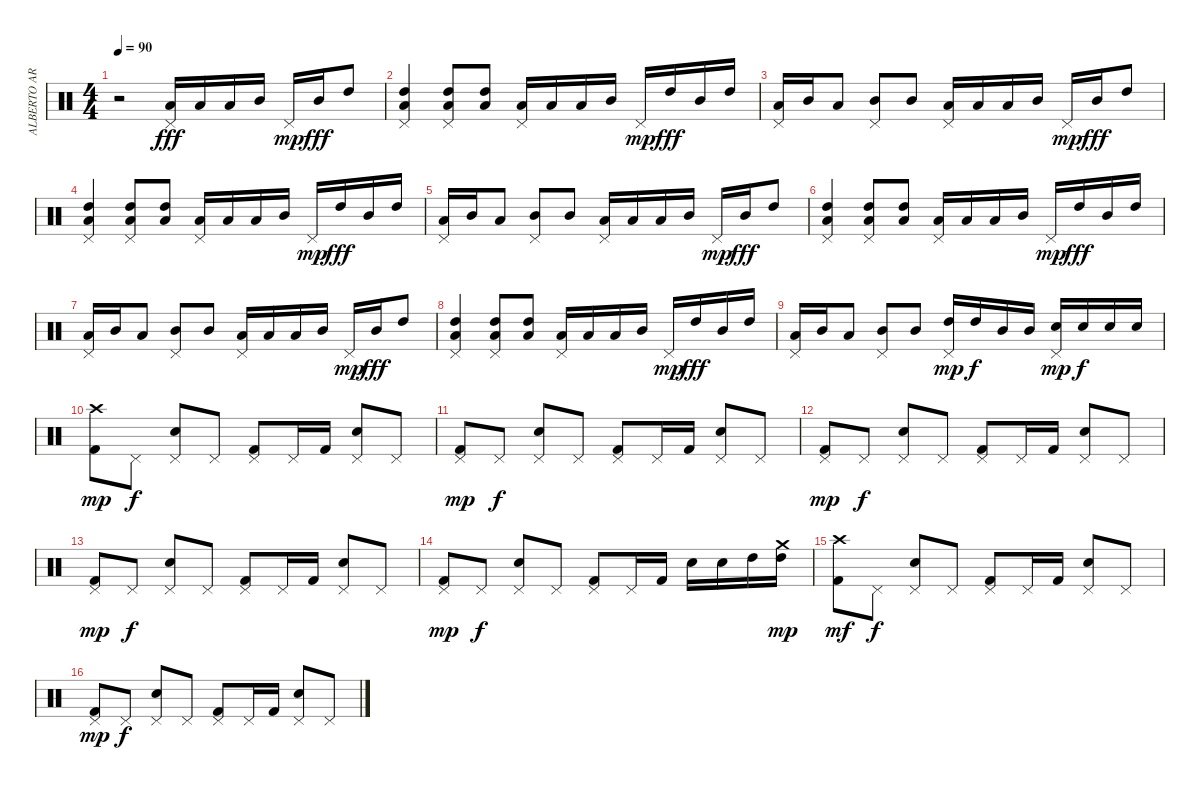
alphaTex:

\track ("ALBERTO ARDINES" "ALBERTO AR") {instrument percussion}
\staff {score}
\articulation defaults
\ts (4 4)
\tempo 90
\clef neutral
\ks c
r.2{dy fff} ("Pedal Hi-Hat (hit)" "Low Tom (hit)").16 "Low Tom (hit)".16 "Low Tom (hit)".16 "Mid Tom (hit)".16 "Pedal Hi-Hat (hit)".16{dy mp} "Mid Tom (hit)".16{dy fff} "High Tom (hit)".8 |
("Pedal Hi-Hat (hit)" "Low Floor Tom (hit)" "High Tom (hit)").4 ("Pedal Hi-Hat (hit)" "Low Floor Tom (hit)" "High Tom (hit)").8 ("Low Floor Tom (hit)" "High Tom (hit)").8 ("Pedal Hi-Hat (hit)" "Low Tom (hit)").16 "Low Tom (hit)".16 "Low Tom (hit)".16 "Mid Tom (hit)".16 "Pedal Hi-Hat (hit)".16{dy mp} "High Tom (hit)".16{dy fff} "Mid Tom (hit)".16 "High Tom (hit)".16 |
("Pedal Hi-Hat (hit)" "Low Tom (hit)").16 "Mid Tom (hit)".16 "Low Tom (hit)".8 ("Pedal Hi-Hat (hit)" "Mid Tom (hit)").8 "Mid Tom (hit)".8 ("Pedal Hi-Hat (hit)" "Low Tom (hit)").16 "Low Tom (hit)".16 "Low Tom (hit)".16 "Mid Tom (hit)".16 "Pedal Hi-Hat (hit)".16{dy mp} "Mid Tom (hit)".16{dy fff} "High Tom (hit)".8 |
("Pedal Hi-Hat (hit)" "Low Floor Tom (hit)" "High Tom (hit)").4 ("Pedal Hi-Hat (hit)" "Low Floor Tom (hit)" "High Tom (hit)").8 ("Low Floor Tom (hit)" "High Tom (hit)").8 ("Pedal Hi-Hat (hit)" "Low Tom (hit)").16 "Low Tom (hit)".16 "Low Tom (hit)".16 "Mid Tom (hit)".16 "Pedal Hi-Hat (hit)".16{dy mp} "High Tom (hit)".16{dy fff} "Mid Tom (hit)".16 "High Tom (hit)".16 |
("Pedal Hi-Hat (hit)" "Low Tom (hit)").16 "Mid Tom (hit)".16 "Low Tom (hit)".8 ("Pedal Hi-Hat (hit)" "Mid Tom (hit)").8 "Mid Tom (hit)".8 ("Pedal Hi-Hat (hit)" "Low Tom (hit)").16 "Low Tom (hit)".16 "Low Tom (hit)".16 "Mid Tom (hit)".16 "Pedal Hi-Hat (hit)".16{dy mp} "Mid Tom (hit)".16{dy fff} "High Tom (hit)".8 |
("Pedal Hi-Hat (hit)" "Low Floor Tom (hit)" "High Tom (hit)").4 ("Pedal Hi-Hat (hit)" "Low Floor Tom (hit)" "High Tom (hit)").8 ("Low Floor Tom (hit)" "High Tom (hit)").8 ("Pedal Hi-Hat (hit)" "Low Tom (hit)").16 "Low Tom (hit)".16 "Low Tom (hit)".16 "Mid Tom (hit)".16 "Pedal Hi-Hat (hit)".16{dy mp} "High Tom (hit)".16{dy fff} "Mid Tom (hit)".16 "High Tom (hit)".16 |
("Pedal Hi-Hat (hit)" "Low Tom (hit)").16 "Mid Tom (hit)".16 "Low Tom (hit)".8 ("Pedal Hi-Hat (hit)" "Mid Tom (hit)").8 "Mid Tom (hit)".8 ("Pedal Hi-Hat (hit)" "Low Tom (hit)").16 "Low Tom (hit)".16 "Low Tom (hit)".16 "Mid Tom (hit)".16 "Pedal Hi-Hat (hit)".16{dy mp} "Mid Tom (hit)".16{dy fff} "High Tom (hit)".8 |
("Pedal Hi-Hat (hit)" "Low Floor Tom (hit)" "High Tom (hit)").4 ("Pedal Hi-Hat (hit)" "Low Floor Tom (hit)" "High Tom (hit)").8 ("Low Floor Tom (hit)" "High Tom (hit)").8 ("Pedal Hi-Hat (hit)" "Low Tom (hit)").16 "Low Tom (hit)".16 "Low Tom (hit)".16 "Mid Tom (hit)".16 "Pedal Hi-Hat (hit)".16{dy mp} "High Tom (hit)".16{dy fff} "Mid Tom (hit)".16 "High Tom (hit)".16 |
("Pedal Hi-Hat (hit)" "Low Tom (hit)").16 "Mid Tom (hit)".16 "Low Tom (hit)".8 ("Pedal Hi-Hat (hit)" "Mid Tom (hit)").8 "Mid Tom (hit)".8 ("Pedal Hi-Hat (hit)" "High Tom (hit)").16{dy mp} "High Tom (hit)".16{dy f} "Mid Tom (hit)".16 "Mid Tom (hit)".16 ("Pedal Hi-Hat (hit)" "Electric Snare (hit)").16{dy mp} "Electric Snare (hit)".16{dy f} "Electric Snare (hit)".16 "Electric Snare (hit)".16 |
("Crash high (hit)" "Kick (hit) 2").8{dy mp} "Pedal Hi-Hat (hit)".8{dy f} ("Pedal Hi-Hat (hit)" "Electric Snare (hit)").8 "Pedal Hi-Hat (hit)".8 ("Pedal Hi-Hat (hit)" "Kick (hit) 2").8 "Pedal Hi-Hat (hit)".16 "Kick (hit) 2".16 ("Pedal Hi-Hat (hit)" "Electric Snare (hit)").8 "Pedal Hi-Hat (hit)".8 |
("Pedal Hi-Hat (hit)" "Kick (hit) 2").8{dy mp} "Pedal Hi-Hat (hit)".8{dy f} ("Pedal Hi-Hat (hit)" "Electric Snare (hit)").8 "Pedal Hi-Hat (hit)".8 ("Pedal Hi-Hat (hit)" "Kick (hit) 2").8 "Pedal Hi-Hat (hit)".16 "Kick (hit) 2".16 ("Pedal Hi-Hat (hit)" "Electric Snare (hit)").8 "Pedal Hi-Hat (hit)".8 |
("Pedal Hi-Hat (hit)" "Kick (hit) 2").8{dy mp} "Pedal Hi-Hat (hit)".8{dy f} ("Pedal Hi-Hat (hit)" "Electric Snare (hit)").8 "Pedal Hi-Hat (hit)".8 ("Pedal Hi-Hat (hit)" "Kick (hit) 2").8 "Pedal Hi-Hat (hit)".16 "Kick (hit) 2".16 ("Pedal Hi-Hat (hit)" "Electric Snare (hit)").8 "Pedal Hi-Hat (hit)".8 |
("Pedal Hi-Hat (hit)" "Kick (hit) 2").8{dy mp} "Pedal Hi-Hat (hit)".8{dy f} ("Pedal Hi-Hat (hit)" "Electric Snare (hit)").8 "Pedal Hi-Hat (hit)".8 ("Pedal Hi-Hat (hit)" "Kick (hit) 2").8 "Pedal Hi-Hat (hit)".16 "Kick (hit) 2".16 ("Pedal Hi-Hat (hit)" "Electric Snare (hit)").8 "Pedal Hi-Hat (hit)".8 |
("Pedal Hi-Hat (hit)" "Kick (hit) 2").8{dy mp} "Pedal Hi-Hat (hit)".8{dy f} ("Pedal Hi-Hat (hit)" "Electric Snare (hit)").8 "Pedal Hi-Hat (hit)".8 ("Pedal Hi-Hat (hit)" "Kick (hit) 2").8 "Pedal Hi-Hat (hit)".16 "Kick (hit) 2".16 "Electric Snare (hit)".16 "Electric Snare (hit)".16 "High Tom (hit)".16 ("Crash medium (hit)" "High Tom (hit)").16{dy mp} |
("Crash high (hit)" "Kick (hit) 2").8{dy mf} "Pedal Hi-Hat (hit)".8{dy f} ("Pedal Hi-Hat (hit)" "Electric Snare (hit)").8 "Pedal Hi-Hat (hit)".8 ("Pedal Hi-Hat (hit)" "Kick (hit) 2").8 "Pedal Hi-Hat (hit)".16 "Kick (hit) 2".16 ("Pedal Hi-Hat (hit)" "Electric Snare (hit)").8 "Pedal Hi-Hat (hit)".8 |
("Pedal Hi-Hat (hit)" "Kick (hit) 2").8{dy mp} "Pedal Hi-Hat (hit)".8{dy f} ("Pedal Hi-Hat (hit)" "Electric Snare (hit)").8 "Pedal Hi-Hat (hit)".8 ("Pedal Hi-Hat (hit)" "Kick (hit) 2").8 "Pedal Hi-Hat (hit)".16 "Kick (hit) 2".16 ("Pedal Hi-Hat (hit)" "Electric Snare (hit)").8 "Pedal Hi-Hat (hit)".8
